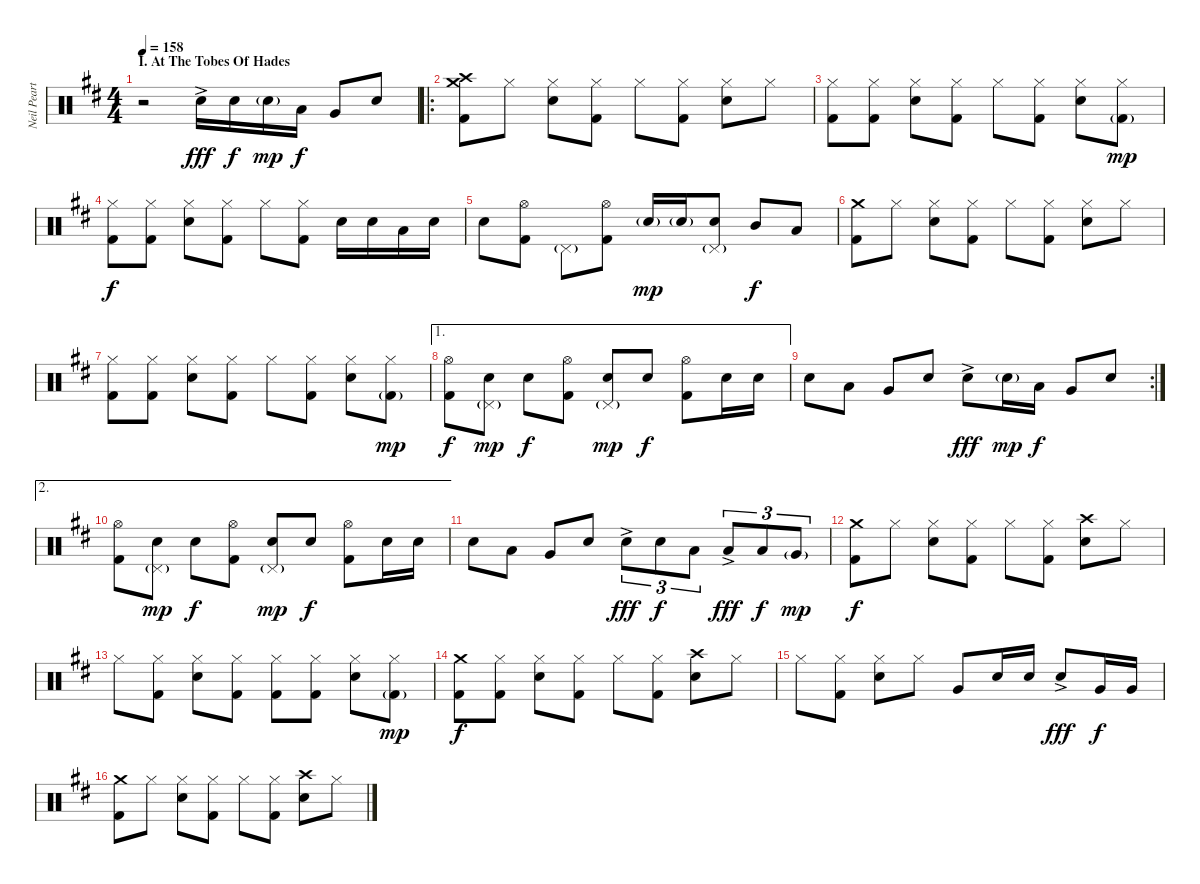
\track ("Neil Peart (drums)" "Neil Peart") {instrument percussion}
\staff {score}
\articulation defaults
\ts (4 4)
\section ("" "I. At The Tobes Of Hades")
\tempo 158
\clef neutral
\ks d
r.2{dy fff} "Electric Snare (hit)"{ac}.16 "Electric Snare (hit)".16{dy f} "Electric Snare (hit)"{g}.16{dy mp} "Low Tom (hit)".16{dy f} "Very Low Tom (hit)".8 "Electric Snare (hit)".8 |
\ro
("Crash high (hit)" "Crash medium (hit)" "Kick (hit) 2").8 "Hi-Hat (closed)".8 ("Hi-Hat (closed)" "Electric Snare (hit)").8 ("Hi-Hat (closed)" "Kick (hit) 2").8 "Hi-Hat (closed)".8 ("Hi-Hat (closed)" "Kick (hit) 2").8 ("Hi-Hat (closed)" "Electric Snare (hit)").8 "Hi-Hat (closed)".8 |
("Hi-Hat (closed)" "Kick (hit) 2").8 ("Hi-Hat (closed)" "Kick (hit) 2").8 ("Hi-Hat (closed)" "Electric Snare (hit)").8 ("Hi-Hat (closed)" "Kick (hit) 2").8 "Hi-Hat (closed)".8 ("Hi-Hat (closed)" "Kick (hit) 2").8 ("Hi-Hat (closed)" "Electric Snare (hit)").8 ("Hi-Hat (closed)" "Kick (hit) 2"{g}).8{dy mp} |
("Hi-Hat (closed)" "Kick (hit) 2").8{dy f} ("Hi-Hat (closed)" "Kick (hit) 2").8 ("Hi-Hat (closed)" "Electric Snare (hit)").8 ("Hi-Hat (closed)" "Kick (hit) 2").8 "Hi-Hat (closed)".8 ("Hi-Hat (closed)" "Kick (hit) 2").8 "Electric Snare (hit)".16 "Electric Snare (hit)".16 "Low Tom (hit)".16 "Electric Snare (hit)".16 |
"Electric Snare (hit)".8 ("Hi-Hat (open)" "Kick (hit) 2").8 "Pedal Hi-Hat (hit)"{g}.8 ("Hi-Hat (open)" "Kick (hit) 2").8 "Electric Snare (hit)"{g}.16{dy mp} "Electric Snare (hit)"{g}.16 ("Electric Snare (hit)" "Pedal Hi-Hat (hit)"{g}).8 "Mid Tom (hit)".8{dy f} "Low Tom (hit)".8 |
("Crash medium (hit)" "Kick (hit) 2").8 "Hi-Hat (closed)".8 ("Hi-Hat (closed)" "Electric Snare (hit)").8 ("Hi-Hat (closed)" "Kick (hit) 2").8 "Hi-Hat (closed)".8 ("Hi-Hat (closed)" "Kick (hit) 2").8 ("Hi-Hat (closed)" "Electric Snare (hit)").8 "Hi-Hat (closed)".8 |
("Hi-Hat (closed)" "Kick (hit) 2").8 ("Hi-Hat (closed)" "Kick (hit) 2").8 ("Hi-Hat (closed)" "Electric Snare (hit)").8 ("Hi-Hat (closed)" "Kick (hit) 2").8 "Hi-Hat (closed)".8 ("Hi-Hat (closed)" "Kick (hit) 2").8 ("Hi-Hat (closed)" "Electric Snare (hit)").8 ("Hi-Hat (closed)" "Kick (hit) 2"{g}).8{dy mp} |
\ae 1
("Hi-Hat (open)" "Kick (hit) 2").8{dy f} ("Electric Snare (hit)" "Pedal Hi-Hat (hit)"{g}).8{dy mp} "Electric Snare (hit)".8{dy f} ("Hi-Hat (open)" "Kick (hit) 2").8 ("Electric Snare (hit)" "Pedal Hi-Hat (hit)"{g}).8{dy mp} "Electric Snare (hit)".8{dy f} ("Hi-Hat (open)" "Kick (hit) 2").8 "Electric Snare (hit)".16 "Electric Snare (hit)".16 |
\rc 2 "Electric Snare (hit)".8 "Low Tom (hit)".8 "Very Low Tom (hit)".8 "Electric Snare (hit)".8 "Electric Snare (hit)"{ac}.8{dy fff} "Electric Snare (hit)"{g}.16{dy mp} "Low Tom (hit)".16{dy f} "Very Low Tom (hit)".8 "Electric Snare (hit)".8
|
\ae 2
("Hi-Hat (open)" "Kick (hit) 2").8 ("Electric Snare (hit)" "Pedal Hi-Hat (hit)"{g}).8{dy mp} "Electric Snare (hit)".8{dy f} ("Hi-Hat (open)" "Kick (hit) 2").8 ("Electric Snare (hit)" "Pedal Hi-Hat (hit)"{g}).8{dy mp} "Electric Snare (hit)".8{dy f} ("Hi-Hat (open)" "Kick (hit) 2").8 "Electric Snare (hit)".16 "Electric Snare (hit)".16 |
"Electric Snare (hit)".8 "Low Tom (hit)".8 "Very Low Tom (hit)".8 "Electric Snare (hit)".8 "Electric Snare (hit)"{ac}.8{tu (3 2) dy fff} "Electric Snare (hit)".8{tu (3 2) dy f} "Low Tom (hit)".8{tu (3 2)} "Low Tom (hit)"{ac}.8{tu (3 2) dy fff} "Low Tom (hit)".8{tu (3 2) dy f} "Very Low Tom (hit)"{g}.8{tu (3 2) dy mp} |
("Crash medium (hit)" "Kick (hit) 2").8{dy f} "Hi-Hat (closed)".8 ("Hi-Hat (closed)" "Electric Snare (hit)").8 ("Hi-Hat (closed)" "Kick (hit) 2").8 "Hi-Hat (closed)".8 ("Hi-Hat (closed)" "Kick (hit) 2").8 ("Crash high (hit)" "Electric Snare (hit)").8 "Hi-Hat (closed)".8 |
"Hi-Hat (closed)".8 ("Hi-Hat (closed)" "Kick (hit) 2").8 ("Hi-Hat (closed)" "Electric Snare (hit)").8 ("Hi-Hat (closed)" "Kick (hit) 2").8 ("Hi-Hat (closed)" "Kick (hit) 2").8 ("Hi-Hat (closed)" "Kick (hit) 2").8 ("Hi-Hat (closed)" "Electric Snare (hit)").8 ("Hi-Hat (closed)" "Kick (hit) 2"{g}).8{dy mp} |
("Crash medium (hit)" "Kick (hit) 2").8{dy f} ("Hi-Hat (closed)" "Kick (hit) 2").8 ("Hi-Hat (closed)" "Electric Snare (hit)").8 ("Hi-Hat (closed)" "Kick (hit) 2").8 "Hi-Hat (closed)".8 ("Hi-Hat (closed)" "Kick (hit) 2").8 ("Crash high (hit)" "Electric Snare (hit)").8 "Hi-Hat (closed)".8 |
"Hi-Hat (closed)".8 ("Hi-Hat (closed)" "Kick (hit) 2").8 ("Hi-Hat (closed)" "Electric Snare (hit)").8 "Hi-Hat (closed)".8 "Very Low Tom (hit)".8 "Electric Snare (hit)".16 "Electric Snare (hit)".16 "Electric Snare (hit)"{ac}.8{dy fff} "Very Low Tom (hit)".16{dy f} "Very Low Tom (hit)".16 |
("Crash medium (hit)" "Kick (hit) 2").8 "Hi-Hat (closed)".8 ("Hi-Hat (closed)" "Electric Snare (hit)").8 ("Hi-Hat (closed)" "Kick (hit) 2").8 "Hi-Hat (closed)".8 ("Hi-Hat (closed)" "Kick (hit) 2").8 ("Crash high (hit)" "Electric Snare (hit)").8 "Hi-Hat (closed)".8
